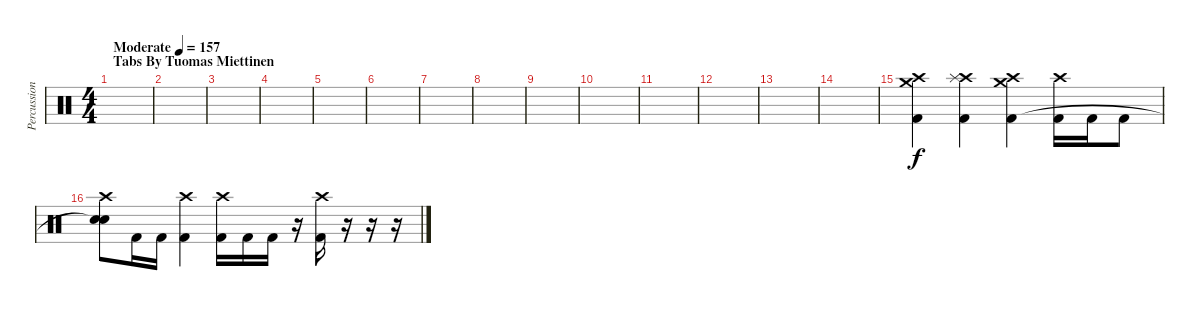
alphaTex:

\track ("Percussions" "Percussion") {instrument percussion}
\staff {score}
\articulation defaults
\ts (4 4)
\section ("" "Tabs By Tuomas Miettinen")
\tempo (157 "Moderate")
\clef neutral
\ks c
|
|
|
|
|
|
|
|
|
|
|
|
|
|
("Crash high (hit)" "Crash medium (hit)" "Kick (hit) 2").4 ("Crash high (hit)" "Splash (hit)" "Kick (hit) 2").4{dy f} ("Crash high (hit)" "Crash medium (hit)" "Kick (hit) 2").4 ("Crash high (hit)" "Kick (hit) 2").16 "Kick (hit) 2".16 "Kick (hit) 2".8 |
("Crash high (hit)" "Electric Snare (hit)" "Snare (hit)"{t}).8 "Kick (hit) 2".16 "Kick (hit) 2".16 ("Crash high (hit)" "Kick (hit) 2").4 ("Crash high (hit)" "Kick (hit) 2").16 "Kick (hit) 2".16 "Kick (hit) 2".16 r.16 ("Crash high (hit)" "Kick (hit) 2").16 r.16 r.16 r.16
